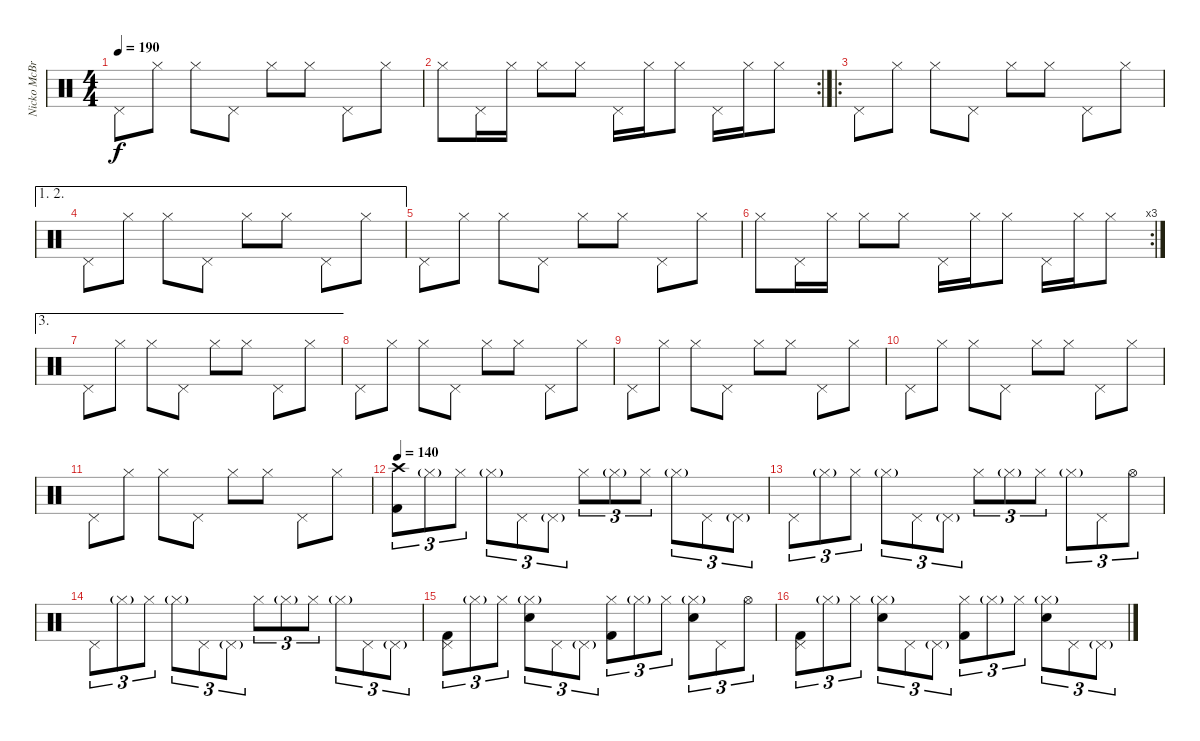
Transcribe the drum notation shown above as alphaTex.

\track ("Nicko McBrain" "Nicko McBr") {instrument percussion}
\staff {score}
\articulation defaults
\ts (4 4)
\tempo 190
\clef neutral
\ks c "Pedal Hi-Hat (hit)".8{dy f} "Hi-Hat (closed)".8 "Hi-Hat (closed)".8 "Pedal Hi-Hat (hit)".8 "Hi-Hat (closed)".8 "Hi-Hat (closed)".8 "Pedal Hi-Hat (hit)".8 "Hi-Hat (closed)".8
|
\rc 2 "Hi-Hat (closed)".8 "Pedal Hi-Hat (hit)".16 "Hi-Hat (closed)".16 "Hi-Hat (closed)".8 "Hi-Hat (closed)".8 "Pedal Hi-Hat (hit)".16 "Hi-Hat (closed)".16 "Hi-Hat (closed)".8 "Pedal Hi-Hat (hit)".16 "Hi-Hat (closed)".16 "Hi-Hat (closed)".8
|
\ro "Pedal Hi-Hat (hit)".8 "Hi-Hat (closed)".8 "Hi-Hat (closed)".8 "Pedal Hi-Hat (hit)".8 "Hi-Hat (closed)".8 "Hi-Hat (closed)".8 "Pedal Hi-Hat (hit)".8 "Hi-Hat (closed)".8
|
\ae (1 2)
"Pedal Hi-Hat (hit)".8 "Hi-Hat (closed)".8 "Hi-Hat (closed)".8 "Pedal Hi-Hat (hit)".8 "Hi-Hat (closed)".8 "Hi-Hat (closed)".8 "Pedal Hi-Hat (hit)".8 "Hi-Hat (closed)".8 |
"Pedal Hi-Hat (hit)".8 "Hi-Hat (closed)".8 "Hi-Hat (closed)".8 "Pedal Hi-Hat (hit)".8 "Hi-Hat (closed)".8 "Hi-Hat (closed)".8 "Pedal Hi-Hat (hit)".8 "Hi-Hat (closed)".8 |
\rc 3 "Hi-Hat (closed)".8 "Pedal Hi-Hat (hit)".16 "Hi-Hat (closed)".16 "Hi-Hat (closed)".8 "Hi-Hat (closed)".8 "Pedal Hi-Hat (hit)".16 "Hi-Hat (closed)".16 "Hi-Hat (closed)".8 "Pedal Hi-Hat (hit)".16 "Hi-Hat (closed)".16 "Hi-Hat (closed)".8
|
\ae 3 "Pedal Hi-Hat (hit)".8 "Hi-Hat (closed)".8 "Hi-Hat (closed)".8 "Pedal Hi-Hat (hit)".8 "Hi-Hat (closed)".8 "Hi-Hat (closed)".8 "Pedal Hi-Hat (hit)".8 "Hi-Hat (closed)".8
|
"Pedal Hi-Hat (hit)".8 "Hi-Hat (closed)".8 "Hi-Hat (closed)".8 "Pedal Hi-Hat (hit)".8 "Hi-Hat (closed)".8 "Hi-Hat (closed)".8 "Pedal Hi-Hat (hit)".8 "Hi-Hat (closed)".8 |
"Pedal Hi-Hat (hit)".8 "Hi-Hat (closed)".8 "Hi-Hat (closed)".8 "Pedal Hi-Hat (hit)".8 "Hi-Hat (closed)".8 "Hi-Hat (closed)".8 "Pedal Hi-Hat (hit)".8 "Hi-Hat (closed)".8 |
"Pedal Hi-Hat (hit)".8 "Hi-Hat (closed)".8 "Hi-Hat (closed)".8 "Pedal Hi-Hat (hit)".8 "Hi-Hat (closed)".8 "Hi-Hat (closed)".8 "Pedal Hi-Hat (hit)".8 "Hi-Hat (closed)".8 |
"Pedal Hi-Hat (hit)".8 "Hi-Hat (closed)".8 "Hi-Hat (closed)".8 "Pedal Hi-Hat (hit)".8 "Hi-Hat (closed)".8 "Hi-Hat (closed)".8 "Pedal Hi-Hat (hit)".8 "Hi-Hat (closed)".8 |
\tempo 140
("Crash high (hit)" "Kick (hit) 2").8{tu (3 2)} "Hi-Hat (closed)"{g}.8{tu (3 2)} "Hi-Hat (closed)".8{tu (3 2)} "Hi-Hat (closed)"{g}.8{tu (3 2)} "Pedal Hi-Hat (hit)".8{tu (3 2)} "Pedal Hi-Hat (hit)"{g}.8{tu (3 2)} "Hi-Hat (closed)".8{tu (3 2)} "Hi-Hat (closed)"{g}.8{tu (3 2)} "Hi-Hat (closed)".8{tu (3 2)} "Hi-Hat (closed)"{g}.8{tu (3 2)} "Pedal Hi-Hat (hit)".8{tu (3 2)} "Pedal Hi-Hat (hit)"{g}.8{tu (3 2)} |
"Pedal Hi-Hat (hit)".8{tu (3 2)} "Hi-Hat (closed)"{g}.8{tu (3 2)} "Hi-Hat (closed)".8{tu (3 2)} "Hi-Hat (closed)"{g}.8{tu (3 2)} "Pedal Hi-Hat (hit)".8{tu (3 2)} "Pedal Hi-Hat (hit)"{g}.8{tu (3 2)} "Hi-Hat (closed)".8{tu (3 2)} "Hi-Hat (closed)"{g}.8{tu (3 2)} "Hi-Hat (closed)".8{tu (3 2)} "Hi-Hat (closed)"{g}.8{tu (3 2)} "Pedal Hi-Hat (hit)".8{tu (3 2)} "Hi-Hat (open)".8{tu (3 2)} |
"Pedal Hi-Hat (hit)".8{tu (3 2)} "Hi-Hat (closed)"{g}.8{tu (3 2)} "Hi-Hat (closed)".8{tu (3 2)} "Hi-Hat (closed)"{g}.8{tu (3 2)} "Pedal Hi-Hat (hit)".8{tu (3 2)} "Pedal Hi-Hat (hit)"{g}.8{tu (3 2)} "Hi-Hat (closed)".8{tu (3 2)} "Hi-Hat (closed)"{g}.8{tu (3 2)} "Hi-Hat (closed)".8{tu (3 2)} "Hi-Hat (closed)"{g}.8{tu (3 2)} "Pedal Hi-Hat (hit)".8{tu (3 2)} "Pedal Hi-Hat (hit)"{g}.8{tu (3 2)} |
("Pedal Hi-Hat (hit)" "Kick (hit) 2").8{tu (3 2)} "Hi-Hat (closed)"{g}.8{tu (3 2)} "Hi-Hat (closed)".8{tu (3 2)} ("Hi-Hat (closed)"{g} "Electric Snare (hit)").8{tu (3 2)} "Pedal Hi-Hat (hit)".8{tu (3 2)} "Pedal Hi-Hat (hit)"{g}.8{tu (3 2)} ("Hi-Hat (closed)" "Kick (hit) 2").8{tu (3 2)} "Hi-Hat (closed)"{g}.8{tu (3 2)} "Hi-Hat (closed)".8{tu (3 2)} ("Hi-Hat (closed)"{g} "Electric Snare (hit)").8{tu (3 2)} "Pedal Hi-Hat (hit)".8{tu (3 2)} "Hi-Hat (open)".8{tu (3 2)} |
("Pedal Hi-Hat (hit)" "Kick (hit) 2").8{tu (3 2)} "Hi-Hat (closed)"{g}.8{tu (3 2)} "Hi-Hat (closed)".8{tu (3 2)} ("Hi-Hat (closed)"{g} "Electric Snare (hit)").8{tu (3 2)} "Pedal Hi-Hat (hit)".8{tu (3 2)} "Pedal Hi-Hat (hit)"{g}.8{tu (3 2)} ("Hi-Hat (closed)" "Kick (hit) 2").8{tu (3 2)} "Hi-Hat (closed)"{g}.8{tu (3 2)} "Hi-Hat (closed)".8{tu (3 2)} ("Hi-Hat (closed)"{g} "Electric Snare (hit)").8{tu (3 2)} "Pedal Hi-Hat (hit)".8{tu (3 2)} "Pedal Hi-Hat (hit)"{g}.8{tu (3 2)}
